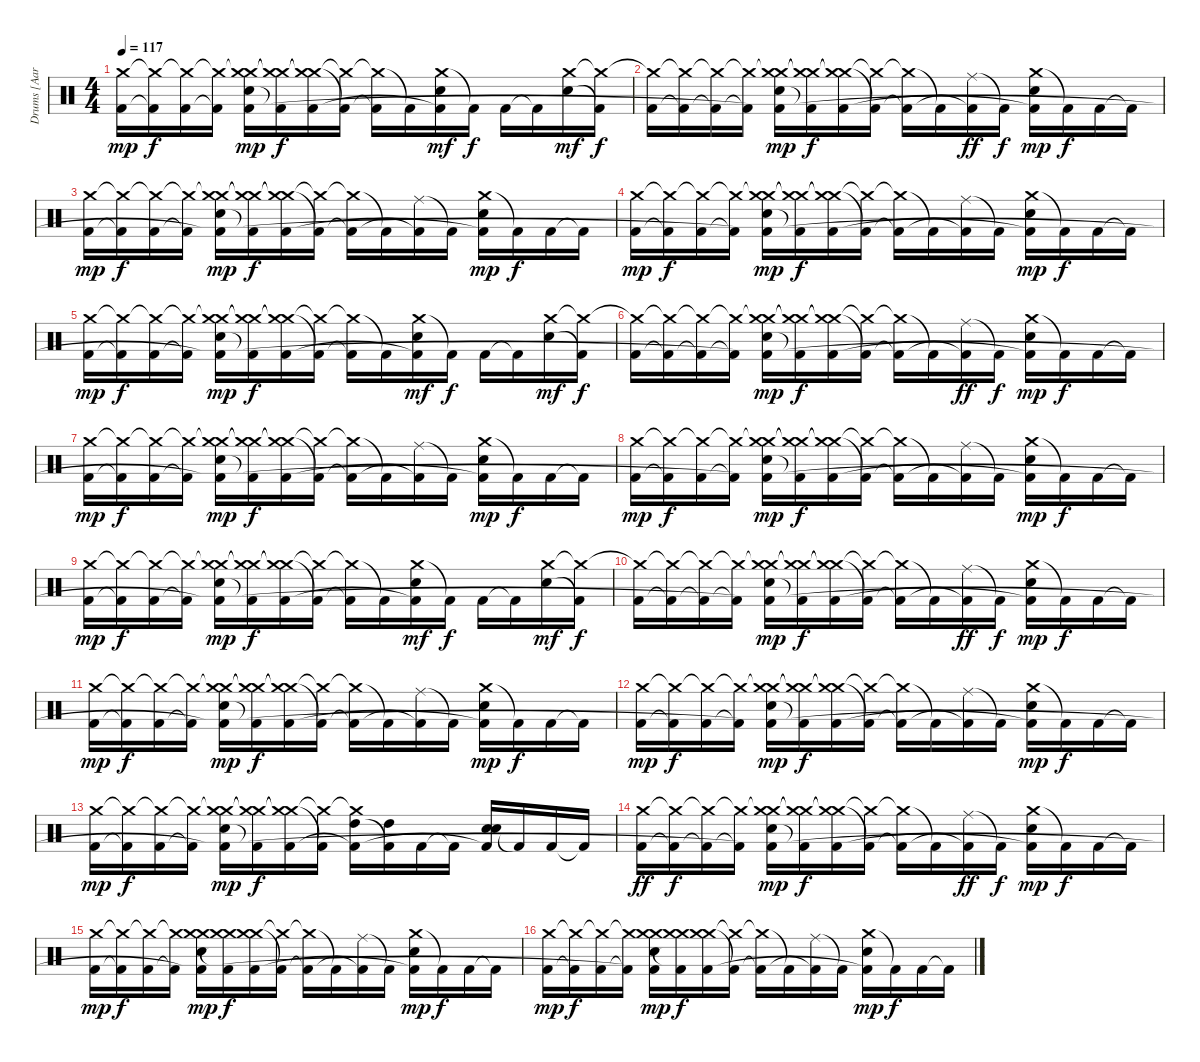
\track ("Drums [Aaron Harris]" "Drums [Aar") {instrument percussion}
\staff {score}
\articulation defaults
\ts (4 4)
\tempo 117
\clef neutral
\ks c
("Crash medium (hit)" "Kick (hit) 2").16{dy mp} ("Crash medium (hit)"{t} "Kick (hit) 2"{t}).16{dy f} ("Crash medium (hit)"{t} "Kick (hit) 2").16 ("Crash medium (hit)"{t} "Kick (hit) 2"{t}).16 ("Crash medium (hit)"{t} "Crash medium (hit)" "Electric Snare (hit)" "Kick (hit) 2"{t}).16{dy mp} ("Crash medium (hit)"{t} "Crash medium (hit)"{t} "Kick (hit) 2"{t}).16{dy f} ("Crash medium (hit)"{t} "Crash medium (hit)"{t} "Kick (hit) 2").16 ("Crash medium (hit)"{t} "Kick (hit) 2"{t}).16 ("Crash medium (hit)"{t} "Kick (hit) 2"{t}).16 "Kick (hit) 2"{t}.16 ("Crash medium (hit)" "Electric Snare (hit)" "Kick (hit) 2"{t}).16{dy mf} "Kick (hit) 2"{t}.16{dy f} "Kick (hit) 2".16 "Kick (hit) 2"{t}.16 ("Crash medium (hit)" "Electric Snare (hit)").16{dy mf} ("Crash medium (hit)"{t} "Kick (hit) 2"{t}).16{dy f} |
("Crash medium (hit)"{t} "Kick (hit) 2").16 ("Crash medium (hit)"{t} "Kick (hit) 2"{t}).16 ("Crash medium (hit)"{t} "Kick (hit) 2"{t}).16 ("Crash medium (hit)"{t} "Kick (hit) 2"{t}).16 ("Crash medium (hit)"{t} "Crash medium (hit)" "Electric Snare (hit)" "Kick (hit) 2"{t}).16{dy mp} ("Crash medium (hit)"{t} "Crash medium (hit)"{t} "Kick (hit) 2"{t}).16{dy f} ("Crash medium (hit)"{t} "Crash medium (hit)"{t} "Kick (hit) 2").16 ("Crash medium (hit)"{t} "Kick (hit) 2"{t}).16 ("Crash medium (hit)"{t} "Kick (hit) 2"{t}).16 "Kick (hit) 2"{t}.16 ("Ride (middle)" "Kick (hit) 2"{t}).16{dy ff} "Kick (hit) 2"{t}.16{dy f} ("Crash medium (hit)" "Electric Snare (hit)" "Kick (hit) 2"{t}).16{dy mp} "Kick (hit) 2"{t}.16{dy f} "Kick (hit) 2".16 "Kick (hit) 2"{t}.16 |
("Crash medium (hit)" "Kick (hit) 2").16{dy mp} ("Crash medium (hit)"{t} "Kick (hit) 2"{t}).16{dy f} ("Crash medium (hit)"{t} "Kick (hit) 2").16 ("Crash medium (hit)"{t} "Kick (hit) 2"{t}).16 ("Crash medium (hit)"{t} "Crash medium (hit)" "Electric Snare (hit)" "Kick (hit) 2"{t}).16{dy mp} ("Crash medium (hit)"{t} "Crash medium (hit)"{t} "Kick (hit) 2"{t}).16{dy f} ("Crash medium (hit)"{t} "Crash medium (hit)"{t} "Kick (hit) 2").16 ("Crash medium (hit)"{t} "Kick (hit) 2"{t}).16 ("Crash medium (hit)"{t} "Kick (hit) 2"{t}).16 "Kick (hit) 2"{t}.16 ("Ride (middle)" "Kick (hit) 2"{t}).16 "Kick (hit) 2"{t}.16 ("Crash medium (hit)" "Electric Snare (hit)" "Kick (hit) 2"{t}).16{dy mp} "Kick (hit) 2"{t}.16{dy f} "Kick (hit) 2".16 "Kick (hit) 2"{t}.16 |
("Crash medium (hit)" "Kick (hit) 2").16{dy mp} ("Crash medium (hit)"{t} "Kick (hit) 2"{t}).16{dy f} ("Crash medium (hit)"{t} "Kick (hit) 2").16 ("Crash medium (hit)"{t} "Kick (hit) 2"{t}).16 ("Crash medium (hit)"{t} "Crash medium (hit)" "Electric Snare (hit)" "Kick (hit) 2"{t}).16{dy mp} ("Crash medium (hit)"{t} "Crash medium (hit)"{t} "Kick (hit) 2"{t}).16{dy f} ("Crash medium (hit)"{t} "Crash medium (hit)"{t} "Kick (hit) 2").16 ("Crash medium (hit)"{t} "Kick (hit) 2"{t}).16 ("Crash medium (hit)"{t} "Kick (hit) 2"{t}).16 "Kick (hit) 2"{t}.16 ("Ride (middle)" "Kick (hit) 2"{t}).16 "Kick (hit) 2"{t}.16 ("Crash medium (hit)" "Electric Snare (hit)" "Kick (hit) 2"{t}).16{dy mp} "Kick (hit) 2"{t}.16{dy f} "Kick (hit) 2".16 "Kick (hit) 2"{t}.16 |
("Crash medium (hit)" "Kick (hit) 2").16{dy mp} ("Crash medium (hit)"{t} "Kick (hit) 2"{t}).16{dy f} ("Crash medium (hit)"{t} "Kick (hit) 2").16 ("Crash medium (hit)"{t} "Kick (hit) 2"{t}).16 ("Crash medium (hit)"{t} "Crash medium (hit)" "Electric Snare (hit)" "Kick (hit) 2"{t}).16{dy mp} ("Crash medium (hit)"{t} "Crash medium (hit)"{t} "Kick (hit) 2"{t}).16{dy f} ("Crash medium (hit)"{t} "Crash medium (hit)"{t} "Kick (hit) 2").16 ("Crash medium (hit)"{t} "Kick (hit) 2"{t}).16 ("Crash medium (hit)"{t} "Kick (hit) 2"{t}).16 "Kick (hit) 2"{t}.16 ("Crash medium (hit)" "Electric Snare (hit)" "Kick (hit) 2"{t}).16{dy mf} "Kick (hit) 2"{t}.16{dy f} "Kick (hit) 2".16 "Kick (hit) 2"{t}.16 ("Crash medium (hit)" "Electric Snare (hit)").16{dy mf} ("Crash medium (hit)"{t} "Kick (hit) 2"{t}).16{dy f} |
("Crash medium (hit)"{t} "Kick (hit) 2").16 ("Crash medium (hit)"{t} "Kick (hit) 2"{t}).16 ("Crash medium (hit)"{t} "Kick (hit) 2"{t}).16 ("Crash medium (hit)"{t} "Kick (hit) 2"{t}).16 ("Crash medium (hit)"{t} "Crash medium (hit)" "Electric Snare (hit)" "Kick (hit) 2"{t}).16{dy mp} ("Crash medium (hit)"{t} "Crash medium (hit)"{t} "Kick (hit) 2"{t}).16{dy f} ("Crash medium (hit)"{t} "Crash medium (hit)"{t} "Kick (hit) 2").16 ("Crash medium (hit)"{t} "Kick (hit) 2"{t}).16 ("Crash medium (hit)"{t} "Kick (hit) 2"{t}).16 "Kick (hit) 2"{t}.16 ("Ride (middle)" "Kick (hit) 2"{t}).16{dy ff} "Kick (hit) 2"{t}.16{dy f} ("Crash medium (hit)" "Electric Snare (hit)" "Kick (hit) 2"{t}).16{dy mp} "Kick (hit) 2"{t}.16{dy f} "Kick (hit) 2".16 "Kick (hit) 2"{t}.16 |
("Crash medium (hit)" "Kick (hit) 2").16{dy mp} ("Crash medium (hit)"{t} "Kick (hit) 2"{t}).16{dy f} ("Crash medium (hit)"{t} "Kick (hit) 2").16 ("Crash medium (hit)"{t} "Kick (hit) 2"{t}).16 ("Crash medium (hit)"{t} "Crash medium (hit)" "Electric Snare (hit)" "Kick (hit) 2"{t}).16{dy mp} ("Crash medium (hit)"{t} "Crash medium (hit)"{t} "Kick (hit) 2"{t}).16{dy f} ("Crash medium (hit)"{t} "Crash medium (hit)"{t} "Kick (hit) 2").16 ("Crash medium (hit)"{t} "Kick (hit) 2"{t}).16 ("Crash medium (hit)"{t} "Kick (hit) 2"{t}).16 "Kick (hit) 2"{t}.16 ("Ride (middle)" "Kick (hit) 2"{t}).16 "Kick (hit) 2"{t}.16 ("Crash medium (hit)" "Electric Snare (hit)" "Kick (hit) 2"{t}).16{dy mp} "Kick (hit) 2"{t}.16{dy f} "Kick (hit) 2".16 "Kick (hit) 2"{t}.16 |
("Crash medium (hit)" "Kick (hit) 2").16{dy mp} ("Crash medium (hit)"{t} "Kick (hit) 2"{t}).16{dy f} ("Crash medium (hit)"{t} "Kick (hit) 2").16 ("Crash medium (hit)"{t} "Kick (hit) 2"{t}).16 ("Crash medium (hit)"{t} "Crash medium (hit)" "Electric Snare (hit)" "Kick (hit) 2"{t}).16{dy mp} ("Crash medium (hit)"{t} "Crash medium (hit)"{t} "Kick (hit) 2"{t}).16{dy f} ("Crash medium (hit)"{t} "Crash medium (hit)"{t} "Kick (hit) 2").16 ("Crash medium (hit)"{t} "Kick (hit) 2"{t}).16 ("Crash medium (hit)"{t} "Kick (hit) 2"{t}).16 "Kick (hit) 2"{t}.16 ("Ride (middle)" "Kick (hit) 2"{t}).16 "Kick (hit) 2"{t}.16 ("Crash medium (hit)" "Electric Snare (hit)" "Kick (hit) 2"{t}).16{dy mp} "Kick (hit) 2"{t}.16{dy f} "Kick (hit) 2".16 "Kick (hit) 2"{t}.16 |
("Crash medium (hit)" "Kick (hit) 2").16{dy mp} ("Crash medium (hit)"{t} "Kick (hit) 2"{t}).16{dy f} ("Crash medium (hit)"{t} "Kick (hit) 2").16 ("Crash medium (hit)"{t} "Kick (hit) 2"{t}).16 ("Crash medium (hit)"{t} "Crash medium (hit)" "Electric Snare (hit)" "Kick (hit) 2"{t}).16{dy mp} ("Crash medium (hit)"{t} "Crash medium (hit)"{t} "Kick (hit) 2"{t}).16{dy f} ("Crash medium (hit)"{t} "Crash medium (hit)"{t} "Kick (hit) 2").16 ("Crash medium (hit)"{t} "Kick (hit) 2"{t}).16 ("Crash medium (hit)"{t} "Kick (hit) 2"{t}).16 "Kick (hit) 2"{t}.16 ("Crash medium (hit)" "Electric Snare (hit)" "Kick (hit) 2"{t}).16{dy mf} "Kick (hit) 2"{t}.16{dy f} "Kick (hit) 2".16 "Kick (hit) 2"{t}.16 ("Crash medium (hit)" "Electric Snare (hit)").16{dy mf} ("Crash medium (hit)"{t} "Kick (hit) 2"{t}).16{dy f} |
("Crash medium (hit)"{t} "Kick (hit) 2").16 ("Crash medium (hit)"{t} "Kick (hit) 2"{t}).16 ("Crash medium (hit)"{t} "Kick (hit) 2"{t}).16 ("Crash medium (hit)"{t} "Kick (hit) 2"{t}).16 ("Crash medium (hit)"{t} "Crash medium (hit)" "Electric Snare (hit)" "Kick (hit) 2"{t}).16{dy mp} ("Crash medium (hit)"{t} "Crash medium (hit)"{t} "Kick (hit) 2"{t}).16{dy f} ("Crash medium (hit)"{t} "Crash medium (hit)"{t} "Kick (hit) 2").16 ("Crash medium (hit)"{t} "Kick (hit) 2"{t}).16 ("Crash medium (hit)"{t} "Kick (hit) 2"{t}).16 "Kick (hit) 2"{t}.16 ("Ride (middle)" "Kick (hit) 2"{t}).16{dy ff} "Kick (hit) 2"{t}.16{dy f} ("Crash medium (hit)" "Electric Snare (hit)" "Kick (hit) 2"{t}).16{dy mp} "Kick (hit) 2"{t}.16{dy f} "Kick (hit) 2".16 "Kick (hit) 2"{t}.16 |
("Crash medium (hit)" "Kick (hit) 2").16{dy mp} ("Crash medium (hit)"{t} "Kick (hit) 2"{t}).16{dy f} ("Crash medium (hit)"{t} "Kick (hit) 2").16 ("Crash medium (hit)"{t} "Kick (hit) 2"{t}).16 ("Crash medium (hit)"{t} "Crash medium (hit)" "Electric Snare (hit)" "Kick (hit) 2"{t}).16{dy mp} ("Crash medium (hit)"{t} "Crash medium (hit)"{t} "Kick (hit) 2"{t}).16{dy f} ("Crash medium (hit)"{t} "Crash medium (hit)"{t} "Kick (hit) 2").16 ("Crash medium (hit)"{t} "Kick (hit) 2"{t}).16 ("Crash medium (hit)"{t} "Kick (hit) 2"{t}).16 "Kick (hit) 2"{t}.16 ("Ride (middle)" "Kick (hit) 2"{t}).16 "Kick (hit) 2"{t}.16 ("Crash medium (hit)" "Electric Snare (hit)" "Kick (hit) 2"{t}).16{dy mp} "Kick (hit) 2"{t}.16{dy f} "Kick (hit) 2".16 "Kick (hit) 2"{t}.16 |
("Crash medium (hit)" "Kick (hit) 2").16{dy mp} ("Crash medium (hit)"{t} "Kick (hit) 2"{t}).16{dy f} ("Crash medium (hit)"{t} "Kick (hit) 2").16 ("Crash medium (hit)"{t} "Kick (hit) 2"{t}).16 ("Crash medium (hit)"{t} "Crash medium (hit)" "Electric Snare (hit)" "Kick (hit) 2"{t}).16{dy mp} ("Crash medium (hit)"{t} "Crash medium (hit)"{t} "Kick (hit) 2"{t}).16{dy f} ("Crash medium (hit)"{t} "Crash medium (hit)"{t} "Kick (hit) 2").16 ("Crash medium (hit)"{t} "Kick (hit) 2"{t}).16 ("Crash medium (hit)"{t} "Kick (hit) 2"{t}).16 "Kick (hit) 2"{t}.16 ("Ride (middle)" "Kick (hit) 2"{t}).16 "Kick (hit) 2"{t}.16 ("Crash medium (hit)" "Electric Snare (hit)" "Kick (hit) 2"{t}).16{dy mp} "Kick (hit) 2"{t}.16{dy f} "Kick (hit) 2".16 "Kick (hit) 2"{t}.16 |
("Crash medium (hit)" "Kick (hit) 2").16{dy mp} ("Crash medium (hit)"{t} "Kick (hit) 2"{t}).16{dy f} ("Crash medium (hit)"{t} "Kick (hit) 2").16 ("Crash medium (hit)"{t} "Kick (hit) 2"{t}).16 ("Crash medium (hit)"{t} "Crash medium (hit)" "Electric Snare (hit)" "Kick (hit) 2"{t}).16{dy mp} ("Crash medium (hit)"{t} "Crash medium (hit)"{t} "Kick (hit) 2"{t}).16{dy f} ("Crash medium (hit)"{t} "Crash medium (hit)"{t} "Kick (hit) 2").16 ("Crash medium (hit)"{t} "Kick (hit) 2"{t}).16 ("Crash medium (hit)"{t} "High Tom (hit)" "Kick (hit) 2"{t}).16 ("High Tom (hit)" "Kick (hit) 2"{t}).16 "Kick (hit) 2".16 "Kick (hit) 2"{t}.16 ("Electric Snare (hit)" "Electric Snare (hit)" "Kick (hit) 2"{t}).16 "Kick (hit) 2"{t}.16 "Kick (hit) 2".16 "Kick (hit) 2"{t}.16 |
("Crash medium (hit)" "Kick (hit) 2").16{dy ff} ("Crash medium (hit)"{t} "Kick (hit) 2"{t}).16{dy f} ("Crash medium (hit)"{t} "Kick (hit) 2"{t}).16 ("Crash medium (hit)"{t} "Kick (hit) 2"{t}).16 ("Crash medium (hit)"{t} "Crash medium (hit)" "Electric Snare (hit)" "Kick (hit) 2"{t}).16{dy mp} ("Crash medium (hit)"{t} "Crash medium (hit)"{t} "Kick (hit) 2"{t}).16{dy f} ("Crash medium (hit)"{t} "Crash medium (hit)"{t} "Kick (hit) 2").16 ("Crash medium (hit)"{t} "Kick (hit) 2"{t}).16 ("Crash medium (hit)"{t} "Kick (hit) 2"{t}).16 "Kick (hit) 2"{t}.16 ("Ride (middle)" "Kick (hit) 2"{t}).16{dy ff} "Kick (hit) 2"{t}.16{dy f} ("Crash medium (hit)" "Electric Snare (hit)" "Kick (hit) 2"{t}).16{dy mp} "Kick (hit) 2"{t}.16{dy f} "Kick (hit) 2".16 "Kick (hit) 2"{t}.16 |
("Crash medium (hit)" "Kick (hit) 2").16{dy mp} ("Crash medium (hit)"{t} "Kick (hit) 2"{t}).16{dy f} ("Crash medium (hit)"{t} "Kick (hit) 2").16 ("Crash medium (hit)"{t} "Kick (hit) 2"{t}).16 ("Crash medium (hit)"{t} "Crash medium (hit)" "Electric Snare (hit)" "Kick (hit) 2"{t}).16{dy mp} ("Crash medium (hit)"{t} "Crash medium (hit)"{t} "Kick (hit) 2"{t}).16{dy f} ("Crash medium (hit)"{t} "Crash medium (hit)"{t} "Kick (hit) 2").16 ("Crash medium (hit)"{t} "Kick (hit) 2"{t}).16 ("Crash medium (hit)"{t} "Kick (hit) 2"{t}).16 "Kick (hit) 2"{t}.16 ("Ride (middle)" "Kick (hit) 2"{t}).16 "Kick (hit) 2"{t}.16 ("Crash medium (hit)" "Electric Snare (hit)" "Kick (hit) 2"{t}).16{dy mp} "Kick (hit) 2"{t}.16{dy f} "Kick (hit) 2".16 "Kick (hit) 2"{t}.16 |
("Crash medium (hit)" "Kick (hit) 2").16{dy mp} ("Crash medium (hit)"{t} "Kick (hit) 2"{t}).16{dy f} ("Crash medium (hit)"{t} "Kick (hit) 2").16 ("Crash medium (hit)"{t} "Kick (hit) 2"{t}).16 ("Crash medium (hit)"{t} "Crash medium (hit)" "Electric Snare (hit)" "Kick (hit) 2"{t}).16{dy mp} ("Crash medium (hit)"{t} "Crash medium (hit)"{t} "Kick (hit) 2"{t}).16{dy f} ("Crash medium (hit)"{t} "Crash medium (hit)"{t} "Kick (hit) 2").16 ("Crash medium (hit)"{t} "Kick (hit) 2"{t}).16 ("Crash medium (hit)"{t} "Kick (hit) 2"{t}).16 "Kick (hit) 2"{t}.16 ("Ride (middle)" "Kick (hit) 2"{t}).16 "Kick (hit) 2"{t}.16 ("Crash medium (hit)" "Electric Snare (hit)" "Kick (hit) 2"{t}).16{dy mp} "Kick (hit) 2"{t}.16{dy f} "Kick (hit) 2".16 "Kick (hit) 2"{t}.16
